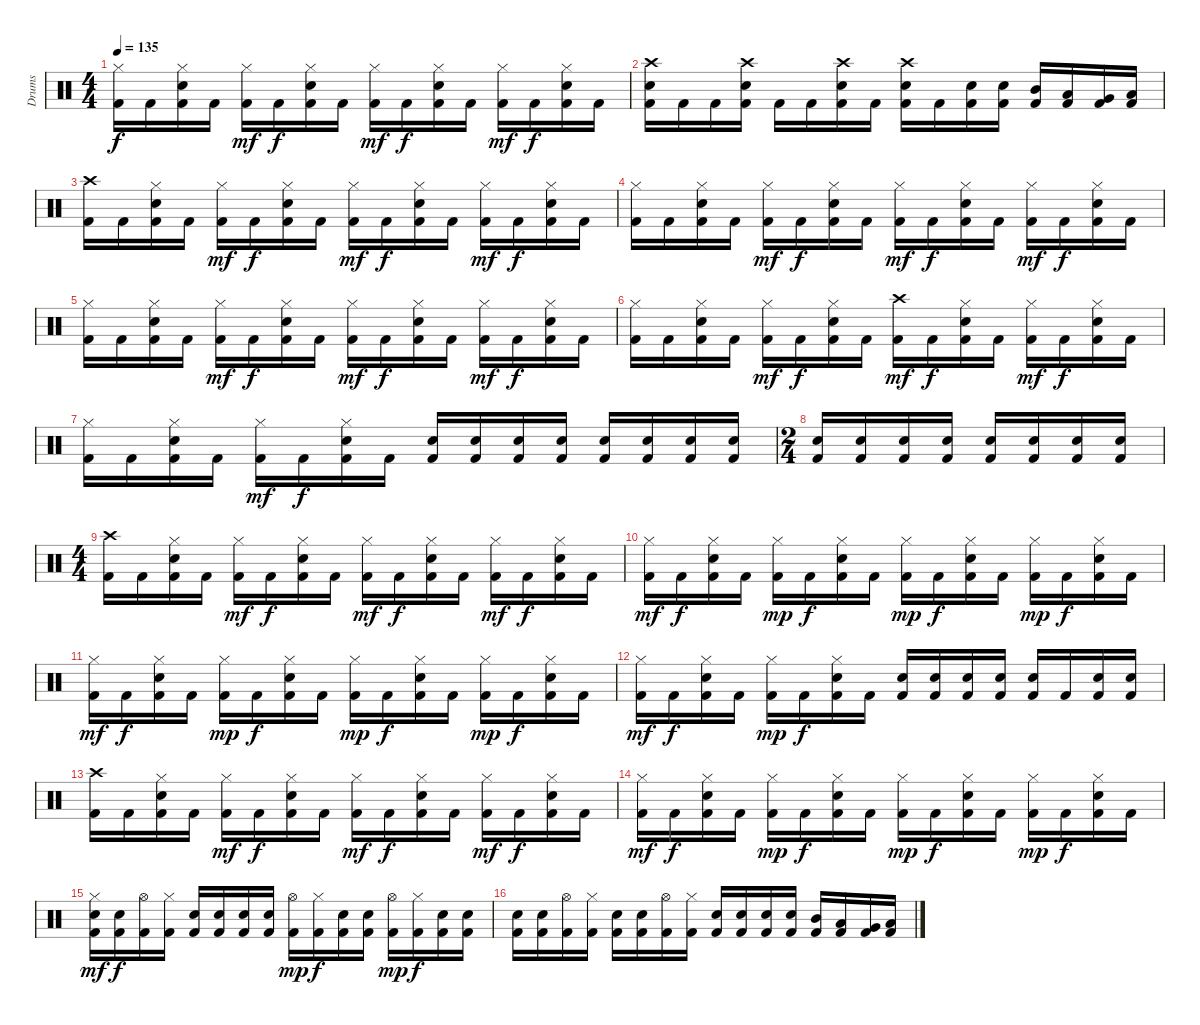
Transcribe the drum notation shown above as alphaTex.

\track ("Drums" "Drums") {instrument percussion}
\staff {score}
\articulation defaults
\ts (4 4)
\tempo 135
\clef neutral
\ks c
("Hi-Hat (closed)" "Kick (hit) 2").16{dy f} "Kick (hit) 2".16 ("Hi-Hat (closed)" "Snare (hit) 2" "Kick (hit) 2").16 "Kick (hit) 2".16 ("Hi-Hat (closed)" "Kick (hit) 2").16{dy mf} "Kick (hit) 2".16{dy f} ("Hi-Hat (closed)" "Snare (hit) 2" "Kick (hit) 2").16 "Kick (hit) 2".16 ("Hi-Hat (closed)" "Kick (hit) 2").16{dy mf} "Kick (hit) 2".16{dy f} ("Hi-Hat (closed)" "Snare (hit) 2" "Kick (hit) 2").16 "Kick (hit) 2".16 ("Hi-Hat (closed)" "Kick (hit) 2").16{dy mf} "Kick (hit) 2".16{dy f} ("Hi-Hat (closed)" "Snare (hit) 2" "Kick (hit) 2").16 "Kick (hit) 2".16 |
("Crash high (hit)" "Snare (hit) 2" "Kick (hit) 2").16 "Kick (hit) 2".16 "Kick (hit) 2".16 ("Crash high (hit)" "Snare (hit) 2" "Kick (hit) 2").16 "Kick (hit) 2".16 "Kick (hit) 2".16 ("Crash high (hit)" "Snare (hit) 2" "Kick (hit) 2").16 "Kick (hit) 2".16 ("Crash high (hit)" "Snare (hit) 2" "Kick (hit) 2").16 "Kick (hit) 2".16 ("Snare (hit) 2" "Kick (hit) 2").16 ("Snare (hit) 2" "Kick (hit) 2").16 ("Mid Tom (hit)" "Kick (hit) 2").16 ("Low Tom (hit)" "Kick (hit) 2").16 ("Very Low Tom (hit)" "Kick (hit) 2").16 ("Low Floor Tom (hit)" "Kick (hit) 2").16 |
("Crash high (hit)" "Kick (hit) 2").16 "Kick (hit) 2".16 ("Hi-Hat (closed)" "Snare (hit) 2" "Kick (hit) 2").16 "Kick (hit) 2".16 ("Hi-Hat (closed)" "Kick (hit) 2").16{dy mf} "Kick (hit) 2".16{dy f} ("Hi-Hat (closed)" "Snare (hit) 2" "Kick (hit) 2").16 "Kick (hit) 2".16 ("Hi-Hat (closed)" "Kick (hit) 2").16{dy mf} "Kick (hit) 2".16{dy f} ("Hi-Hat (closed)" "Snare (hit) 2" "Kick (hit) 2").16 "Kick (hit) 2".16 ("Hi-Hat (closed)" "Kick (hit) 2").16{dy mf} "Kick (hit) 2".16{dy f} ("Hi-Hat (closed)" "Snare (hit) 2" "Kick (hit) 2").16 "Kick (hit) 2".16 |
("Hi-Hat (closed)" "Kick (hit) 2").16 "Kick (hit) 2".16 ("Hi-Hat (closed)" "Snare (hit) 2" "Kick (hit) 2").16 "Kick (hit) 2".16 ("Hi-Hat (closed)" "Kick (hit) 2").16{dy mf} "Kick (hit) 2".16{dy f} ("Hi-Hat (closed)" "Snare (hit) 2" "Kick (hit) 2").16 "Kick (hit) 2".16 ("Hi-Hat (closed)" "Kick (hit) 2").16{dy mf} "Kick (hit) 2".16{dy f} ("Hi-Hat (closed)" "Snare (hit) 2" "Kick (hit) 2").16 "Kick (hit) 2".16 ("Hi-Hat (closed)" "Kick (hit) 2").16{dy mf} "Kick (hit) 2".16{dy f} ("Hi-Hat (closed)" "Snare (hit) 2" "Kick (hit) 2").16 "Kick (hit) 2".16 |
("Hi-Hat (closed)" "Kick (hit) 2").16 "Kick (hit) 2".16 ("Hi-Hat (closed)" "Snare (hit) 2" "Kick (hit) 2").16 "Kick (hit) 2".16 ("Hi-Hat (closed)" "Kick (hit) 2").16{dy mf} "Kick (hit) 2".16{dy f} ("Hi-Hat (closed)" "Snare (hit) 2" "Kick (hit) 2").16 "Kick (hit) 2".16 ("Hi-Hat (closed)" "Kick (hit) 2").16{dy mf} "Kick (hit) 2".16{dy f} ("Hi-Hat (closed)" "Snare (hit) 2" "Kick (hit) 2").16 "Kick (hit) 2".16 ("Hi-Hat (closed)" "Kick (hit) 2").16{dy mf} "Kick (hit) 2".16{dy f} ("Hi-Hat (closed)" "Snare (hit) 2" "Kick (hit) 2").16 "Kick (hit) 2".16 |
("Hi-Hat (closed)" "Kick (hit) 2").16 "Kick (hit) 2".16 ("Hi-Hat (closed)" "Snare (hit) 2" "Kick (hit) 2").16 "Kick (hit) 2".16 ("Hi-Hat (closed)" "Kick (hit) 2").16{dy mf} "Kick (hit) 2".16{dy f} ("Hi-Hat (closed)" "Snare (hit) 2" "Kick (hit) 2").16 "Kick (hit) 2".16 ("Crash high (hit)" "Kick (hit) 2").16{dy mf} "Kick (hit) 2".16{dy f} ("Hi-Hat (closed)" "Snare (hit) 2" "Kick (hit) 2").16 "Kick (hit) 2".16 ("Hi-Hat (closed)" "Kick (hit) 2").16{dy mf} "Kick (hit) 2".16{dy f} ("Hi-Hat (closed)" "Snare (hit) 2" "Kick (hit) 2").16 "Kick (hit) 2".16 |
("Hi-Hat (closed)" "Kick (hit) 2").16 "Kick (hit) 2".16 ("Hi-Hat (closed)" "Snare (hit) 2" "Kick (hit) 2").16 "Kick (hit) 2".16 ("Hi-Hat (closed)" "Kick (hit) 2").16{dy mf} "Kick (hit) 2".16{dy f} ("Hi-Hat (closed)" "Snare (hit) 2" "Kick (hit) 2").16 "Kick (hit) 2".16 ("Snare (hit) 2" "Kick (hit) 2").16 ("Snare (hit) 2" "Kick (hit) 2").16 ("Snare (hit) 2" "Kick (hit) 2").16 ("Snare (hit) 2" "Kick (hit) 2").16 ("Snare (hit) 2" "Kick (hit) 2").16 ("Snare (hit) 2" "Kick (hit) 2").16 ("Snare (hit) 2" "Kick (hit) 2").16 ("Snare (hit) 2" "Kick (hit) 2").16 |
\ts (2 4)
("Snare (hit) 2" "Kick (hit) 2").16 ("Snare (hit) 2" "Kick (hit) 2").16 ("Snare (hit) 2" "Kick (hit) 2").16 ("Snare (hit) 2" "Kick (hit) 2").16 ("Snare (hit) 2" "Kick (hit) 2").16 ("Snare (hit) 2" "Kick (hit) 2").16 ("Snare (hit) 2" "Kick (hit) 2").16 ("Snare (hit) 2" "Kick (hit) 2").16 |
\ts (4 4)
("Crash high (hit)" "Kick (hit) 2").16 "Kick (hit) 2".16 ("Hi-Hat (closed)" "Snare (hit) 2" "Kick (hit) 2").16 "Kick (hit) 2".16 ("Hi-Hat (closed)" "Kick (hit) 2").16{dy mf} "Kick (hit) 2".16{dy f} ("Hi-Hat (closed)" "Snare (hit) 2" "Kick (hit) 2").16 "Kick (hit) 2".16 ("Hi-Hat (closed)" "Kick (hit) 2").16{dy mf} "Kick (hit) 2".16{dy f} ("Hi-Hat (closed)" "Snare (hit) 2" "Kick (hit) 2").16 "Kick (hit) 2".16 ("Hi-Hat (closed)" "Kick (hit) 2").16{dy mf} "Kick (hit) 2".16{dy f} ("Hi-Hat (closed)" "Snare (hit) 2" "Kick (hit) 2").16 "Kick (hit) 2".16 |
("Hi-Hat (closed)" "Kick (hit) 2").16{dy mf} "Kick (hit) 2".16{dy f} ("Hi-Hat (closed)" "Snare (hit) 2" "Kick (hit) 2").16 "Kick (hit) 2".16 ("Hi-Hat (closed)" "Kick (hit) 2").16{dy mp} "Kick (hit) 2".16{dy f} ("Hi-Hat (closed)" "Snare (hit) 2" "Kick (hit) 2").16 "Kick (hit) 2".16 ("Hi-Hat (closed)" "Kick (hit) 2").16{dy mp} "Kick (hit) 2".16{dy f} ("Hi-Hat (closed)" "Snare (hit) 2" "Kick (hit) 2").16 "Kick (hit) 2".16 ("Hi-Hat (closed)" "Kick (hit) 2").16{dy mp} "Kick (hit) 2".16{dy f} ("Hi-Hat (closed)" "Snare (hit) 2" "Kick (hit) 2").16 "Kick (hit) 2".16 |
("Hi-Hat (closed)" "Kick (hit) 2").16{dy mf} "Kick (hit) 2".16{dy f} ("Hi-Hat (closed)" "Snare (hit) 2" "Kick (hit) 2").16 "Kick (hit) 2".16 ("Hi-Hat (closed)" "Kick (hit) 2").16{dy mp} "Kick (hit) 2".16{dy f} ("Hi-Hat (closed)" "Snare (hit) 2" "Kick (hit) 2").16 "Kick (hit) 2".16 ("Hi-Hat (closed)" "Kick (hit) 2").16{dy mp} "Kick (hit) 2".16{dy f} ("Hi-Hat (closed)" "Snare (hit) 2" "Kick (hit) 2").16 "Kick (hit) 2".16 ("Hi-Hat (closed)" "Kick (hit) 2").16{dy mp} "Kick (hit) 2".16{dy f} ("Hi-Hat (closed)" "Snare (hit) 2" "Kick (hit) 2").16 "Kick (hit) 2".16 |
("Hi-Hat (closed)" "Kick (hit) 2").16{dy mf} "Kick (hit) 2".16{dy f} ("Hi-Hat (closed)" "Snare (hit) 2" "Kick (hit) 2").16 "Kick (hit) 2".16 ("Hi-Hat (closed)" "Kick (hit) 2").16{dy mp} "Kick (hit) 2".16{dy f} ("Hi-Hat (closed)" "Snare (hit) 2" "Kick (hit) 2").16 "Kick (hit) 2".16 ("Snare (hit) 2" "Kick (hit) 2").16 ("Snare (hit) 2" "Kick (hit) 2").16 ("Snare (hit) 2" "Kick (hit) 2").16 ("Snare (hit) 2" "Kick (hit) 2").16 ("Snare (hit) 2" "Kick (hit) 2").16 "Kick (hit) 2".16 ("Snare (hit) 2" "Kick (hit) 2").16 ("Snare (hit) 2" "Kick (hit) 2").16 |
("Crash high (hit)" "Kick (hit) 2").16 "Kick (hit) 2".16 ("Hi-Hat (closed)" "Snare (hit) 2" "Kick (hit) 2").16 "Kick (hit) 2".16 ("Hi-Hat (closed)" "Kick (hit) 2").16{dy mf} "Kick (hit) 2".16{dy f} ("Hi-Hat (closed)" "Snare (hit) 2" "Kick (hit) 2").16 "Kick (hit) 2".16 ("Hi-Hat (closed)" "Kick (hit) 2").16{dy mf} "Kick (hit) 2".16{dy f} ("Hi-Hat (closed)" "Snare (hit) 2" "Kick (hit) 2").16 "Kick (hit) 2".16 ("Hi-Hat (closed)" "Kick (hit) 2").16{dy mf} "Kick (hit) 2".16{dy f} ("Hi-Hat (closed)" "Snare (hit) 2" "Kick (hit) 2").16 "Kick (hit) 2".16 |
("Hi-Hat (closed)" "Kick (hit) 2").16{dy mf} "Kick (hit) 2".16{dy f} ("Hi-Hat (closed)" "Snare (hit) 2" "Kick (hit) 2").16 "Kick (hit) 2".16 ("Hi-Hat (closed)" "Kick (hit) 2").16{dy mp} "Kick (hit) 2".16{dy f} ("Hi-Hat (closed)" "Snare (hit) 2" "Kick (hit) 2").16 "Kick (hit) 2".16 ("Hi-Hat (closed)" "Kick (hit) 2").16{dy mp} "Kick (hit) 2".16{dy f} ("Hi-Hat (closed)" "Snare (hit) 2" "Kick (hit) 2").16 "Kick (hit) 2".16 ("Hi-Hat (closed)" "Kick (hit) 2").16{dy mp} "Kick (hit) 2".16{dy f} ("Hi-Hat (closed)" "Snare (hit) 2" "Kick (hit) 2").16 "Kick (hit) 2".16 |
("Hi-Hat (closed)" "Snare (hit) 2" "Kick (hit) 2").16{dy mf} ("Snare (hit) 2" "Kick (hit) 2").16{dy f} ("Hi-Hat (open)" "Kick (hit) 2").16 ("Hi-Hat (closed)" "Kick (hit) 2").16 ("Snare (hit) 2" "Kick (hit) 2").16 ("Snare (hit) 2" "Kick (hit) 2").16 ("Snare (hit) 2" "Kick (hit) 2").16 ("Snare (hit) 2" "Kick (hit) 2").16 ("Hi-Hat (open)" "Kick (hit) 2").16{dy mp} ("Hi-Hat (closed)" "Kick (hit) 2").16{dy f} ("Snare (hit) 2" "Kick (hit) 2").16 ("Snare (hit) 2" "Kick (hit) 2").16 ("Hi-Hat (open)" "Kick (hit) 2").16{dy mp} ("Hi-Hat (closed)" "Kick (hit) 2").16{dy f} ("Snare (hit) 2" "Kick (hit) 2").16 ("Snare (hit) 2" "Kick (hit) 2").16 |
("Snare (hit) 2" "Kick (hit) 2").16 ("Snare (hit) 2" "Kick (hit) 2").16 ("Hi-Hat (open)" "Kick (hit) 2").16 ("Hi-Hat (closed)" "Kick (hit) 2").16 ("Snare (hit) 2" "Kick (hit) 2").16 ("Snare (hit) 2" "Kick (hit) 2").16 ("Hi-Hat (open)" "Kick (hit) 2").16 ("Hi-Hat (closed)" "Kick (hit) 2").16 ("Snare (hit) 2" "Kick (hit) 2").16 ("Snare (hit) 2" "Kick (hit) 2").16 ("Snare (hit) 2" "Kick (hit) 2").16 ("Snare (hit) 2" "Kick (hit) 2").16 ("Mid Tom (hit)" "Kick (hit) 2").16 ("Low Tom (hit)" "Kick (hit) 2").16 ("Very Low Tom (hit)" "Kick (hit) 2").16 ("Low Floor Tom (hit)" "Kick (hit) 2").16
